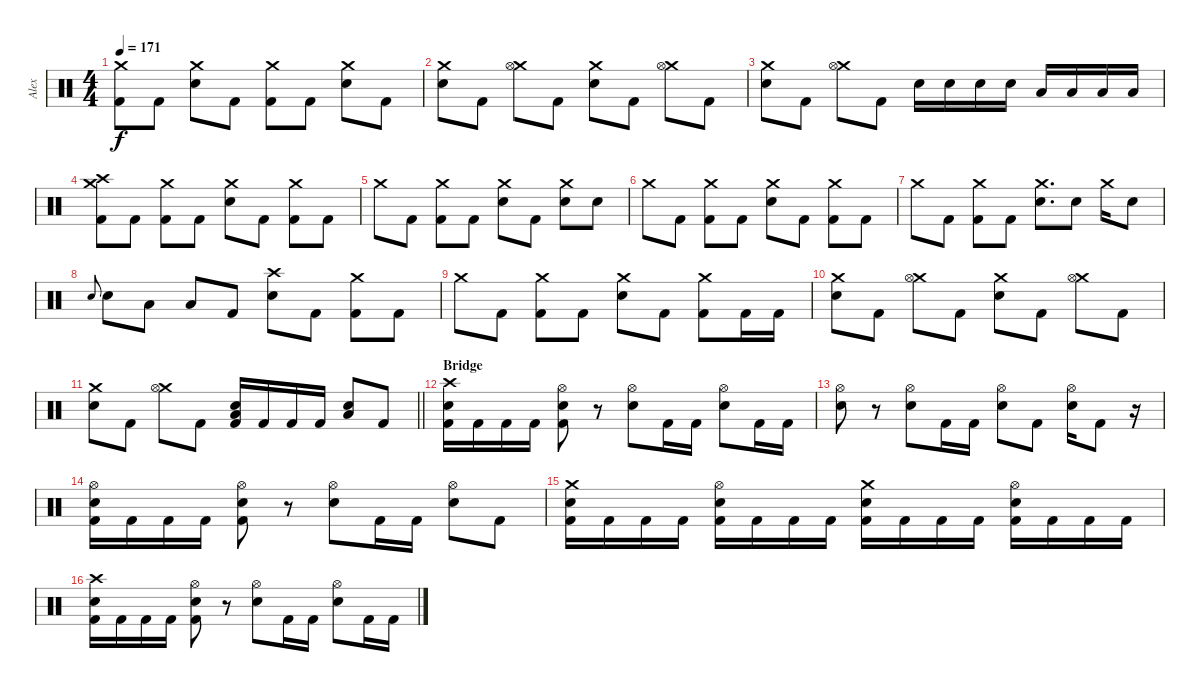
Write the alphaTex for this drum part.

\track ("Alex" "Alex") {instrument percussion}
\staff
\articulation defaults
\ts (4 4)
\tempo 171
\clef neutral
\ks c
("Crash medium (hit)" "Kick (hit) 2").8{dy f} "Kick (hit) 2".8 ("Crash medium (hit)" "Electric Snare (hit)").8 "Kick (hit) 2".8 ("Crash medium (hit)" "Kick (hit) 2").8 "Kick (hit) 2".8 ("Crash medium (hit)" "Electric Snare (hit)").8 "Kick (hit) 2".8 |
("Crash medium (hit)" "Electric Snare (hit)").8 "Kick (hit) 2".8 ("Crash medium (hit)" "Hi-Hat (open)").8 "Kick (hit) 2".8 ("Crash medium (hit)" "Electric Snare (hit)").8 "Kick (hit) 2".8 ("Crash medium (hit)" "Hi-Hat (open)").8 "Kick (hit) 2".8 |
("Crash medium (hit)" "Electric Snare (hit)").8 "Kick (hit) 2".8 ("Crash medium (hit)" "Hi-Hat (open)").8 "Kick (hit) 2".8 "Electric Snare (hit)".16 "Electric Snare (hit)".16 "Electric Snare (hit)".16 "Electric Snare (hit)".16 "Low Tom (hit)".16 "Low Tom (hit)".16 "Low Floor Tom (hit)".16 "Low Floor Tom (hit)".16 |
("Crash medium (hit)" "Crash high (hit)" "Kick (hit) 2").8 "Kick (hit) 2".8 ("Crash medium (hit)" "Kick (hit) 2").8 "Kick (hit) 2".8 ("Crash medium (hit)" "Electric Snare (hit)").8 "Kick (hit) 2".8 ("Crash medium (hit)" "Kick (hit) 2").8 "Kick (hit) 2".8 |
"Crash medium (hit)".8 "Kick (hit) 2".8 ("Crash medium (hit)" "Kick (hit) 2").8 "Kick (hit) 2".8 ("Crash medium (hit)" "Electric Snare (hit)").8 "Kick (hit) 2".8 ("Crash medium (hit)" "Electric Snare (hit)").8 "Electric Snare (hit)".8 |
"Crash medium (hit)".8 "Kick (hit) 2".8 ("Crash medium (hit)" "Kick (hit) 2").8 "Kick (hit) 2".8 ("Crash medium (hit)" "Electric Snare (hit)").8 "Kick (hit) 2".8 ("Crash medium (hit)" "Kick (hit) 2").8 "Kick (hit) 2".8 |
"Crash medium (hit)".8 "Kick (hit) 2".8 ("Crash medium (hit)" "Kick (hit) 2").8 "Kick (hit) 2".8 ("Crash medium (hit)" "Electric Snare (hit)").8{d} "Electric Snare (hit)".8 "Crash medium (hit)".16 "Electric Snare (hit)".8 |
"Electric Snare (hit)".8{gr onbeat} "Electric Snare (hit)".8 "Low Tom (hit)".8 "Low Floor Tom (hit)".8 "Kick (hit) 2".8 ("Crash high (hit)" "Electric Snare (hit)").8 "Kick (hit) 2".8 ("Crash medium (hit)" "Kick (hit) 2").8 "Kick (hit) 2".8 |
"Crash medium (hit)".8 "Kick (hit) 2".8 ("Crash medium (hit)" "Kick (hit) 2").8 "Kick (hit) 2".8 ("Crash medium (hit)" "Electric Snare (hit)").8 "Kick (hit) 2".8 ("Crash medium (hit)" "Kick (hit) 2").8 "Kick (hit) 2".16 "Kick (hit) 2".16 |
("Crash medium (hit)" "Electric Snare (hit)").8 "Kick (hit) 2".8 ("Crash medium (hit)" "Hi-Hat (open)").8 "Kick (hit) 2".8 ("Crash medium (hit)" "Electric Snare (hit)").8 "Kick (hit) 2".8 ("Crash medium (hit)" "Hi-Hat (open)").8 "Kick (hit) 2".8 |
\barLineRight lightlight
("Crash medium (hit)" "Electric Snare (hit)").8 "Kick (hit) 2".8 ("Crash medium (hit)" "Hi-Hat (open)").8 "Kick (hit) 2".8 ("Electric Snare (hit)" "Low Floor Tom (hit)" "Kick (hit) 2").16 "Kick (hit) 2".16 "Kick (hit) 2".16 "Kick (hit) 2".16 ("Electric Snare (hit)" "Low Floor Tom (hit)").8 "Kick (hit) 2".8 |
\section ("" "Bridge")
("Crash high (hit)" "Electric Snare (hit)" "Kick (hit) 2").16 "Kick (hit) 2".16 "Kick (hit) 2".16 "Kick (hit) 2".16 ("Hi-Hat (open)" "Electric Snare (hit)" "Kick (hit) 2").8 r.8 ("Hi-Hat (open)" "Electric Snare (hit)").8 "Kick (hit) 2".16 "Kick (hit) 2".16 ("Hi-Hat (open)" "Electric Snare (hit)").8 "Kick (hit) 2".16 "Kick (hit) 2".16 |
("Hi-Hat (open)" "Electric Snare (hit)").8 r.8 ("Hi-Hat (open)" "Electric Snare (hit)").8 "Kick (hit) 2".16 "Kick (hit) 2".16 ("Hi-Hat (open)" "Electric Snare (hit)").8 "Kick (hit) 2".8 ("Hi-Hat (open)" "Electric Snare (hit)").16 "Kick (hit) 2".8 r.16 |
("Hi-Hat (open)" "Electric Snare (hit)" "Kick (hit) 2").16 "Kick (hit) 2".16 "Kick (hit) 2".16 "Kick (hit) 2".16 ("Hi-Hat (open)" "Electric Snare (hit)" "Kick (hit) 2").8 r.8 ("Hi-Hat (open)" "Electric Snare (hit)").8 "Kick (hit) 2".16 "Kick (hit) 2".16 ("Hi-Hat (open)" "Electric Snare (hit)").8 "Kick (hit) 2".8 |
("Crash medium (hit)" "Electric Snare (hit)" "Kick (hit) 2").16 "Kick (hit) 2".16 "Kick (hit) 2".16 "Kick (hit) 2".16 ("Hi-Hat (open)" "Electric Snare (hit)" "Kick (hit) 2").16 "Kick (hit) 2".16 "Kick (hit) 2".16 "Kick (hit) 2".16 ("Crash medium (hit)" "Electric Snare (hit)" "Kick (hit) 2").16 "Kick (hit) 2".16 "Kick (hit) 2".16 "Kick (hit) 2".16 ("Hi-Hat (open)" "Electric Snare (hit)" "Kick (hit) 2").16 "Kick (hit) 2".16 "Kick (hit) 2".16 "Kick (hit) 2".16 |
("Crash high (hit)" "Electric Snare (hit)" "Kick (hit) 2").16 "Kick (hit) 2".16 "Kick (hit) 2".16 "Kick (hit) 2".16 ("Hi-Hat (open)" "Electric Snare (hit)" "Kick (hit) 2").8 r.8 ("Hi-Hat (open)" "Electric Snare (hit)").8 "Kick (hit) 2".16 "Kick (hit) 2".16 ("Hi-Hat (open)" "Electric Snare (hit)").8 "Kick (hit) 2".16 "Kick (hit) 2".16
